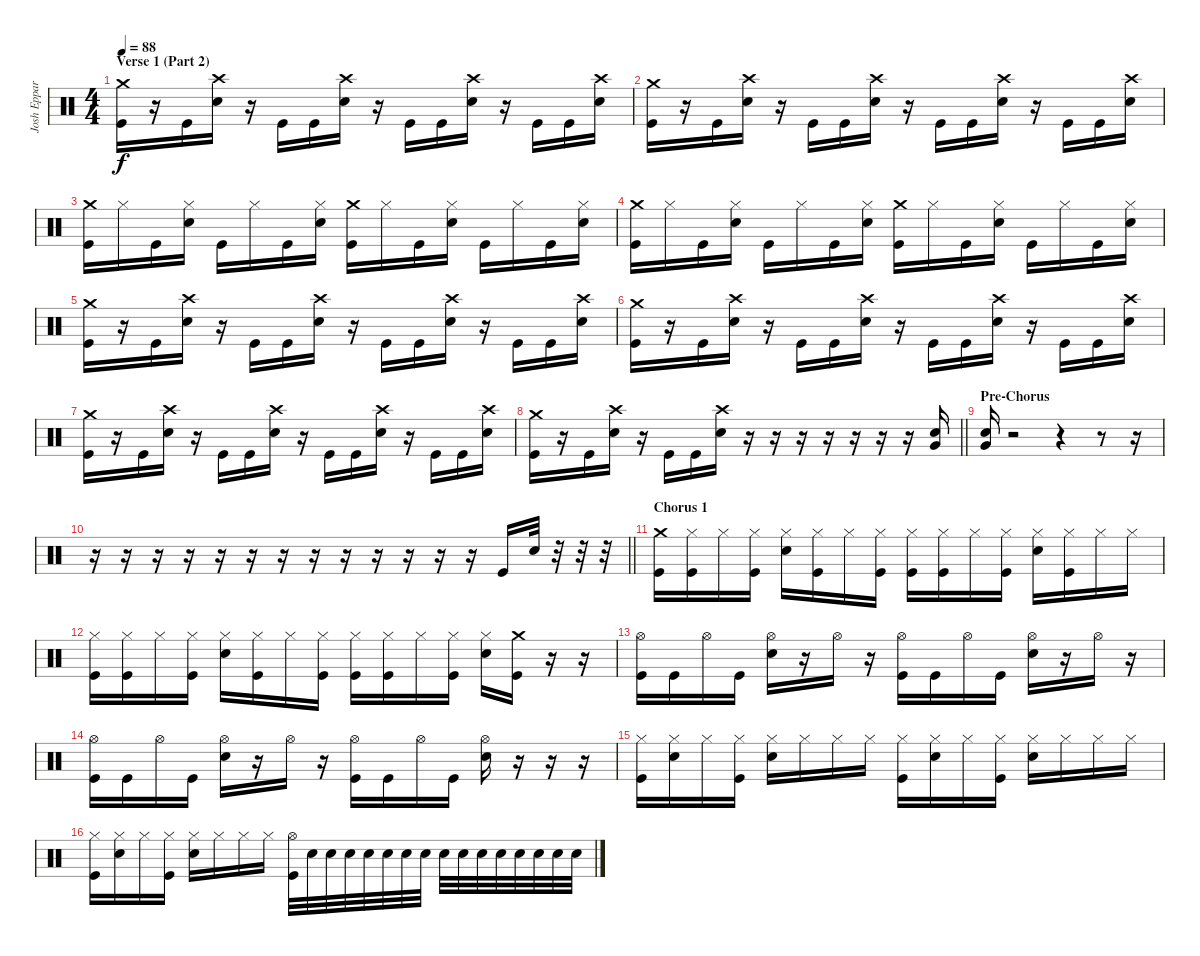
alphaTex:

\track ("Josh Eppard (Drums)" "Josh Eppar") {instrument percussion}
\staff {score}
\articulation defaults
\ts (4 4)
\section ("" "Verse 1 (Part 2)")
\tempo 88
\clef neutral
\ks c
("Crash medium (hit)" "Kick (hit)").16{dy f} r.16 "Kick (hit)".16 ("Crash high (hit)" "Electric Snare (hit)").16 r.16 "Kick (hit)".16 "Kick (hit)".16 ("Crash high (hit)" "Electric Snare (hit)").16 r.16 "Kick (hit)".16 "Kick (hit)".16 ("Crash high (hit)" "Electric Snare (hit)").16 r.16 "Kick (hit)".16 "Kick (hit)".16 ("Crash high (hit)" "Electric Snare (hit)").16 |
("Crash medium (hit)" "Kick (hit)").16 r.16 "Kick (hit)".16 ("Crash high (hit)" "Electric Snare (hit)").16 r.16 "Kick (hit)".16 "Kick (hit)".16 ("Crash high (hit)" "Electric Snare (hit)").16 r.16 "Kick (hit)".16 "Kick (hit)".16 ("Crash high (hit)" "Electric Snare (hit)").16 r.16 "Kick (hit)".16 "Kick (hit)".16 ("Crash high (hit)" "Electric Snare (hit)").16 |
("Crash medium (hit)" "Kick (hit)").16 "Hi-Hat (closed)".16 "Kick (hit)".16 ("Hi-Hat (closed)" "Electric Snare (hit)").16 "Kick (hit)".16 "Hi-Hat (closed)".16 "Kick (hit)".16 ("Hi-Hat (closed)" "Electric Snare (hit)").16 ("Crash medium (hit)" "Kick (hit)").16 "Hi-Hat (closed)".16 "Kick (hit)".16 ("Hi-Hat (closed)" "Electric Snare (hit)").16 "Kick (hit)".16 "Hi-Hat (closed)".16 "Kick (hit)".16 ("Hi-Hat (closed)" "Electric Snare (hit)").16 |
("Crash medium (hit)" "Kick (hit)").16 "Hi-Hat (closed)".16 "Kick (hit)".16 ("Hi-Hat (closed)" "Electric Snare (hit)").16 "Kick (hit)".16 "Hi-Hat (closed)".16 "Kick (hit)".16 ("Hi-Hat (closed)" "Electric Snare (hit)").16 ("Crash medium (hit)" "Kick (hit)").16 "Hi-Hat (closed)".16 "Kick (hit)".16 ("Hi-Hat (closed)" "Electric Snare (hit)").16 "Kick (hit)".16 "Hi-Hat (closed)".16 "Kick (hit)".16 ("Hi-Hat (closed)" "Electric Snare (hit)").16 |
("Crash medium (hit)" "Kick (hit)").16 r.16 "Kick (hit)".16 ("Crash high (hit)" "Electric Snare (hit)").16 r.16 "Kick (hit)".16 "Kick (hit)".16 ("Crash high (hit)" "Electric Snare (hit)").16 r.16 "Kick (hit)".16 "Kick (hit)".16 ("Crash high (hit)" "Electric Snare (hit)").16 r.16 "Kick (hit)".16 "Kick (hit)".16 ("Crash high (hit)" "Electric Snare (hit)").16 |
("Crash medium (hit)" "Kick (hit)").16 r.16 "Kick (hit)".16 ("Crash high (hit)" "Electric Snare (hit)").16 r.16 "Kick (hit)".16 "Kick (hit)".16 ("Crash high (hit)" "Electric Snare (hit)").16 r.16 "Kick (hit)".16 "Kick (hit)".16 ("Crash high (hit)" "Electric Snare (hit)").16 r.16 "Kick (hit)".16 "Kick (hit)".16 ("Crash high (hit)" "Electric Snare (hit)").16 |
("Crash medium (hit)" "Kick (hit)").16 r.16 "Kick (hit)".16 ("Crash high (hit)" "Electric Snare (hit)").16 r.16 "Kick (hit)".16 "Kick (hit)".16 ("Crash high (hit)" "Electric Snare (hit)").16 r.16 "Kick (hit)".16 "Kick (hit)".16 ("Crash high (hit)" "Electric Snare (hit)").16 r.16 "Kick (hit)".16 "Kick (hit)".16 ("Crash high (hit)" "Electric Snare (hit)").16 |
\barLineRight lightlight
("Crash medium (hit)" "Kick (hit)").16 r.16 "Kick (hit)".16 ("Crash high (hit)" "Electric Snare (hit)").16 r.16 "Kick (hit)".16 "Kick (hit)".16 ("Crash high (hit)" "Electric Snare (hit)").16 r.16 r.16 r.16 r.16 r.16 r.16 r.16 ("Very Low Tom (hit)" "Electric Snare (hit)").16 |
\section ("" "Pre-Chorus")
("Very Low Tom (hit)" "Electric Snare (hit)").16 r.2 r.4 r.8 r.16 |
\barLineRight lightlight
r.16 r.16 r.16 r.16 r.16 r.16 r.16 r.16 r.16 r.16 r.16 r.16 r.16 "Kick (hit)".16 "Electric Snare (hit)".32 r.32 r.32 r.32 |
\section ("" "Chorus 1")
("Crash medium (hit)" "Kick (hit)").16 ("Hi-Hat (closed)" "Kick (hit)").16 "Hi-Hat (closed)".16 ("Hi-Hat (closed)" "Kick (hit)").16 ("Hi-Hat (closed)" "Electric Snare (hit)").16 ("Hi-Hat (closed)" "Kick (hit)").16 "Hi-Hat (closed)".16 ("Hi-Hat (closed)" "Kick (hit)").16 ("Hi-Hat (closed)" "Kick (hit)").16 ("Hi-Hat (closed)" "Kick (hit)").16 "Hi-Hat (closed)".16 ("Hi-Hat (closed)" "Kick (hit)").16 ("Hi-Hat (closed)" "Electric Snare (hit)").16 ("Hi-Hat (closed)" "Kick (hit)").16 "Hi-Hat (closed)".16 "Hi-Hat (closed)".16 |
("Hi-Hat (closed)" "Kick (hit)").16 ("Hi-Hat (closed)" "Kick (hit)").16 "Hi-Hat (closed)".16 ("Hi-Hat (closed)" "Kick (hit)").16 ("Hi-Hat (closed)" "Electric Snare (hit)").16 ("Hi-Hat (closed)" "Kick (hit)").16 "Hi-Hat (closed)".16 ("Hi-Hat (closed)" "Kick (hit)").16 ("Hi-Hat (closed)" "Kick (hit)").16 ("Hi-Hat (closed)" "Kick (hit)").16 "Hi-Hat (closed)".16 ("Hi-Hat (closed)" "Kick (hit)").16 ("Hi-Hat (closed)" "Electric Snare (hit)").16 ("Crash medium (hit)" "Kick (hit)").16 r.16 r.16 |
("Hi-Hat (open)" "Kick (hit)").16 "Kick (hit)".16 "Hi-Hat (open)".16 "Kick (hit)".16 ("Hi-Hat (open)" "Electric Snare (hit)").16 r.16 "Hi-Hat (open)".16 r.16 ("Hi-Hat (open)" "Kick (hit)").16 "Kick (hit)".16 "Hi-Hat (open)".16 "Kick (hit)".16 ("Hi-Hat (open)" "Electric Snare (hit)").16 r.16 "Hi-Hat (open)".16 r.16 |
("Hi-Hat (open)" "Kick (hit)").16 "Kick (hit)".16 "Hi-Hat (open)".16 "Kick (hit)".16 ("Hi-Hat (open)" "Electric Snare (hit)").16 r.16 "Hi-Hat (open)".16 r.16 ("Hi-Hat (open)" "Kick (hit)").16 "Kick (hit)".16 "Hi-Hat (open)".16 "Kick (hit)".16 ("Hi-Hat (open)" "Electric Snare (hit)").16 r.16 r.16 r.16 |
("Hi-Hat (closed)" "Kick (hit)").16 ("Hi-Hat (closed)" "Electric Snare (hit)").16 "Hi-Hat (closed)".16 ("Hi-Hat (closed)" "Kick (hit)").16 ("Hi-Hat (closed)" "Electric Snare (hit)").16 "Hi-Hat (closed)".16 "Hi-Hat (closed)".16 "Hi-Hat (closed)".16 ("Hi-Hat (closed)" "Kick (hit)").16 ("Hi-Hat (closed)" "Electric Snare (hit)").16 "Hi-Hat (closed)".16 ("Hi-Hat (closed)" "Kick (hit)").16 ("Hi-Hat (closed)" "Electric Snare (hit)").16 "Hi-Hat (closed)".16 "Hi-Hat (closed)".16 "Hi-Hat (closed)".16 |
("Hi-Hat (closed)" "Kick (hit)").16 ("Hi-Hat (closed)" "Electric Snare (hit)").16 "Hi-Hat (closed)".16 ("Hi-Hat (closed)" "Kick (hit)").16 ("Hi-Hat (closed)" "Electric Snare (hit)").16 "Hi-Hat (closed)".16 "Hi-Hat (closed)".16 "Hi-Hat (closed)".16 ("Hi-Hat (open)" "Kick (hit)").32 "Electric Snare (hit)".32 "Electric Snare (hit)".32 "Electric Snare (hit)".32 "Electric Snare (hit)".32 "Electric Snare (hit)".32 "Electric Snare (hit)".32 "Electric Snare (hit)".32 "Electric Snare (hit)".32 "Electric Snare (hit)".32 "Electric Snare (hit)".32 "Electric Snare (hit)".32 "Electric Snare (hit)".32 "Electric Snare (hit)".32 "Electric Snare (hit)".32 "Electric Snare (hit)".32
